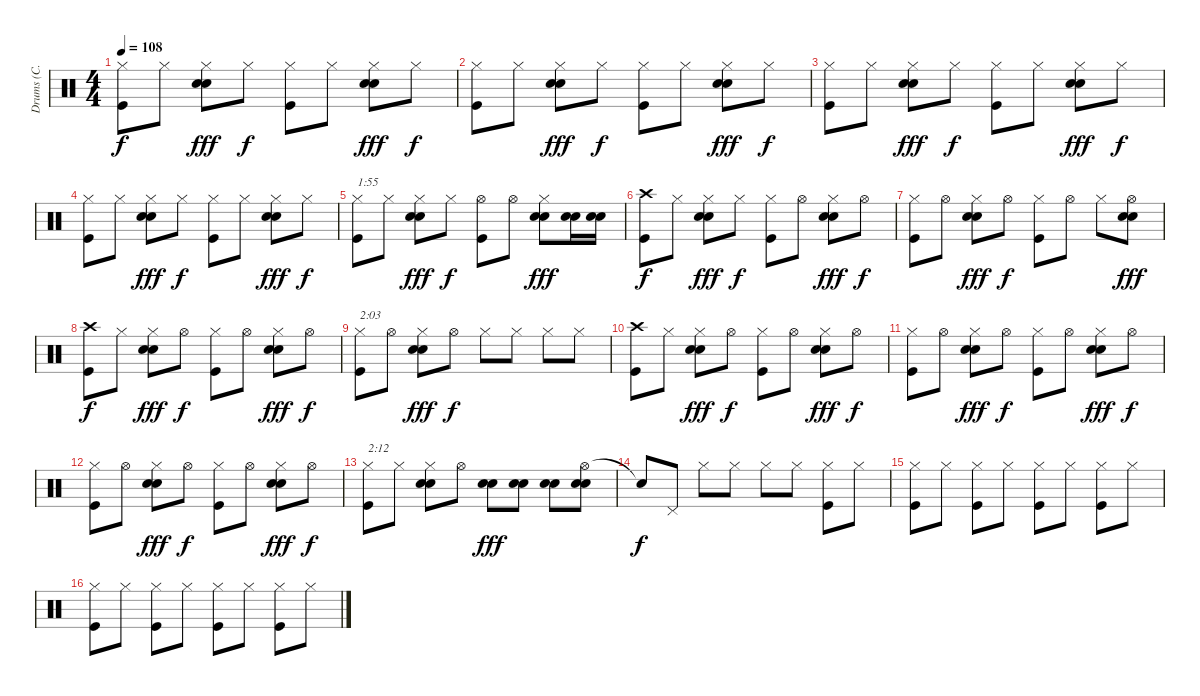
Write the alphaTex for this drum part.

\track ("Drums (C. Watts)" "Drums (C. ") {instrument percussion}
\staff {score}
\articulation defaults
\ts (4 4)
\tempo 108
\clef neutral
\ks c
("Hi-Hat (closed)" "Kick (hit)").8{dy f} "Hi-Hat (closed)".8 ("Hi-Hat (closed)" "Snare (hit) 2" "Electric Snare (hit)").8{dy fff} "Hi-Hat (closed)".8{dy f} ("Hi-Hat (closed)" "Kick (hit)").8 "Hi-Hat (closed)".8 ("Hi-Hat (closed)" "Snare (hit) 2" "Electric Snare (hit)").8{dy fff} "Hi-Hat (closed)".8{dy f} |
("Hi-Hat (closed)" "Kick (hit)").8 "Hi-Hat (closed)".8 ("Hi-Hat (closed)" "Snare (hit) 2" "Electric Snare (hit)").8{dy fff} "Hi-Hat (closed)".8{dy f} ("Hi-Hat (closed)" "Kick (hit)").8 "Hi-Hat (closed)".8 ("Hi-Hat (closed)" "Snare (hit) 2" "Electric Snare (hit)").8{dy fff} "Hi-Hat (closed)".8{dy f} |
("Hi-Hat (closed)" "Kick (hit)").8 "Hi-Hat (closed)".8 ("Hi-Hat (closed)" "Snare (hit) 2" "Electric Snare (hit)").8{dy fff} "Hi-Hat (closed)".8{dy f} ("Hi-Hat (closed)" "Kick (hit)").8 "Hi-Hat (closed)".8 ("Hi-Hat (closed)" "Snare (hit) 2" "Electric Snare (hit)").8{dy fff} "Hi-Hat (closed)".8{dy f} |
("Hi-Hat (closed)" "Kick (hit)").8 "Hi-Hat (closed)".8 ("Hi-Hat (closed)" "Snare (hit) 2" "Electric Snare (hit)").8{dy fff} "Hi-Hat (closed)".8{dy f} ("Hi-Hat (closed)" "Kick (hit)").8 "Hi-Hat (closed)".8 ("Hi-Hat (closed)" "Snare (hit) 2" "Electric Snare (hit)").8{dy fff} "Hi-Hat (closed)".8{dy f} |
("Hi-Hat (closed)" "Kick (hit)").8{txt "1:55"} "Hi-Hat (closed)".8 ("Hi-Hat (closed)" "Snare (hit) 2" "Electric Snare (hit)").8{dy fff} "Hi-Hat (closed)".8{dy f} ("Hi-Hat (open)" "Kick (hit)").8 "Hi-Hat (open)".8 ("Hi-Hat (closed)" "Snare (hit) 2" "Electric Snare (hit)").8{dy fff} ("Snare (hit) 2" "Electric Snare (hit)").16 ("Snare (hit) 2" "Electric Snare (hit)").16 |
("Crash high (hit)" "Kick (hit)").8{dy f} "Hi-Hat (closed)".8 ("Hi-Hat (closed)" "Snare (hit) 2" "Electric Snare (hit)").8{dy fff} "Hi-Hat (closed)".8{dy f} ("Hi-Hat (closed)" "Kick (hit)").8 "Hi-Hat (open)".8 ("Hi-Hat (closed)" "Snare (hit) 2" "Electric Snare (hit)").8{dy fff} "Hi-Hat (open)".8{dy f} |
("Hi-Hat (closed)" "Kick (hit)").8 "Hi-Hat (open)".8 ("Hi-Hat (closed)" "Snare (hit) 2" "Electric Snare (hit)").8{dy fff} "Hi-Hat (open)".8{dy f} ("Hi-Hat (closed)" "Kick (hit)").8 "Hi-Hat (open)".8 "Hi-Hat (closed)".8 ("Hi-Hat (open)" "Snare (hit) 2" "Electric Snare (hit)").8{dy fff} |
("Crash high (hit)" "Kick (hit)").8{dy f} "Hi-Hat (closed)".8 ("Hi-Hat (closed)" "Snare (hit) 2" "Electric Snare (hit)").8{dy fff} "Hi-Hat (open)".8{dy f} ("Hi-Hat (closed)" "Kick (hit)").8 "Hi-Hat (open)".8 ("Hi-Hat (closed)" "Snare (hit) 2" "Electric Snare (hit)").8{dy fff} "Hi-Hat (open)".8{dy f} |
("Hi-Hat (closed)" "Kick (hit)").8{txt "2:03"} "Hi-Hat (open)".8 ("Hi-Hat (closed)" "Snare (hit) 2" "Electric Snare (hit)").8{dy fff} "Hi-Hat (open)".8{dy f} "Hi-Hat (closed)".8 "Hi-Hat (closed)".8 "Hi-Hat (closed)".8 "Hi-Hat (closed)".8 |
("Crash high (hit)" "Kick (hit)").8 "Hi-Hat (closed)".8 ("Hi-Hat (closed)" "Snare (hit) 2" "Electric Snare (hit)").8{dy fff} "Hi-Hat (open)".8{dy f} ("Hi-Hat (closed)" "Kick (hit)").8 "Hi-Hat (open)".8 ("Hi-Hat (closed)" "Snare (hit) 2" "Electric Snare (hit)").8{dy fff} "Hi-Hat (open)".8{dy f} |
("Hi-Hat (closed)" "Kick (hit)").8 "Hi-Hat (open)".8 ("Hi-Hat (closed)" "Snare (hit) 2" "Electric Snare (hit)").8{dy fff} "Hi-Hat (open)".8{dy f} ("Hi-Hat (closed)" "Kick (hit)").8 "Hi-Hat (open)".8 ("Hi-Hat (closed)" "Snare (hit) 2" "Electric Snare (hit)").8{dy fff} "Hi-Hat (open)".8{dy f} |
("Hi-Hat (closed)" "Kick (hit)").8 "Hi-Hat (open)".8 ("Hi-Hat (closed)" "Snare (hit) 2" "Electric Snare (hit)").8{dy fff} "Hi-Hat (open)".8{dy f} ("Hi-Hat (closed)" "Kick (hit)").8 "Hi-Hat (open)".8 ("Hi-Hat (closed)" "Snare (hit) 2" "Electric Snare (hit)").8{dy fff} "Hi-Hat (open)".8{dy f} |
("Hi-Hat (closed)" "Kick (hit)").8{txt "2:12"} "Hi-Hat (closed)".8 ("Hi-Hat (closed)" "Snare (hit) 2" "Electric Snare (hit)").8 "Hi-Hat (open)".8 ("Snare (hit) 2" "Electric Snare (hit)").8{dy fff} ("Snare (hit) 2" "Electric Snare (hit)").8 ("Snare (hit) 2" "Electric Snare (hit)").8 ("Hi-Hat (open)" "Snare (hit) 2" "Electric Snare (hit)").8 |
"Snare (hit)"{t}.8{dy f} "Pedal Hi-Hat (hit)".8 "Hi-Hat (closed)".8 "Hi-Hat (closed)".8 "Hi-Hat (closed)".8 "Hi-Hat (closed)".8 ("Hi-Hat (closed)" "Kick (hit)").8 "Hi-Hat (closed)".8 |
("Hi-Hat (closed)" "Kick (hit)").8 "Hi-Hat (closed)".8 ("Hi-Hat (closed)" "Kick (hit)").8 "Hi-Hat (closed)".8 ("Hi-Hat (closed)" "Kick (hit)").8 "Hi-Hat (closed)".8 ("Hi-Hat (closed)" "Kick (hit)").8 "Hi-Hat (closed)".8 |
("Hi-Hat (closed)" "Kick (hit)").8 "Hi-Hat (closed)".8 ("Hi-Hat (closed)" "Kick (hit)").8 "Hi-Hat (closed)".8 ("Hi-Hat (closed)" "Kick (hit)").8 "Hi-Hat (closed)".8 ("Hi-Hat (closed)" "Kick (hit)").8 "Hi-Hat (closed)".8
